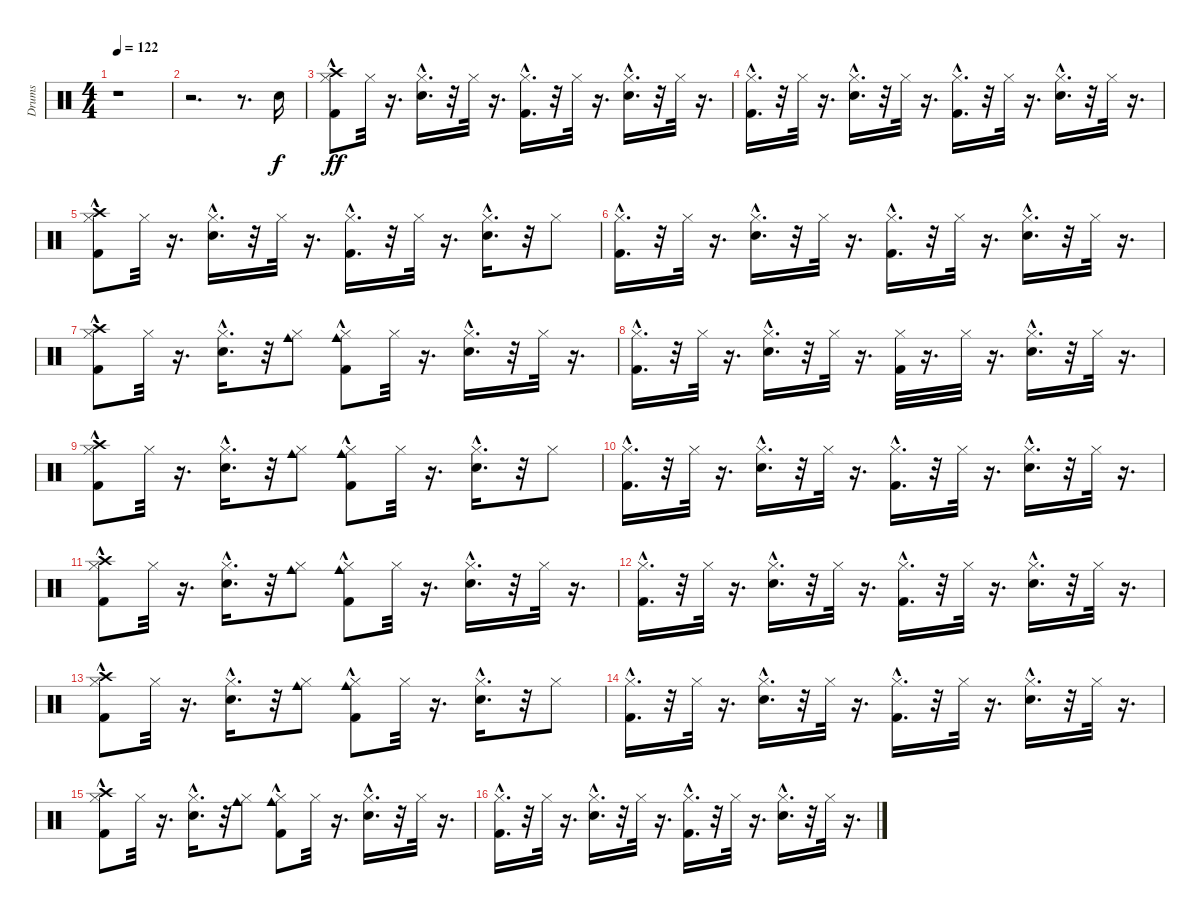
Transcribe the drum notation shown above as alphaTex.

\track ("Drums" "Drums") {instrument percussion}
\staff {score}
\articulation defaults
\ts (4 4)
\tempo 122
\clef neutral
\ks c
r.1{dy ff} |
r.2{d} r.8{d} "Snare (hit) 2".16{dy f} |
("Kick (hit) 2"{hac} "Hi-Hat (closed)"{hac} "Crash high (hit)"{hac}).8{dy ff} "Hi-Hat (closed)".32 r.16{d} ("Snare (hit) 2"{hac} "Hi-Hat (closed)"{hac}).16{d} r.32 "Hi-Hat (closed)".32 r.16{d} ("Kick (hit) 2"{hac} "Hi-Hat (closed)"{hac}).16{d} r.32 "Hi-Hat (closed)".32 r.16{d} ("Snare (hit) 2"{hac} "Hi-Hat (closed)"{hac}).16{d} r.32 "Hi-Hat (closed)".32 r.16{d} |
("Kick (hit) 2"{hac} "Hi-Hat (closed)"{hac}).16{d} r.32 "Hi-Hat (closed)".32 r.16{d} ("Snare (hit) 2"{hac} "Hi-Hat (closed)"{hac}).16{d} r.32 "Hi-Hat (closed)".32 r.16{d} ("Kick (hit) 2"{hac} "Hi-Hat (closed)"{hac}).16{d} r.32 "Hi-Hat (closed)".32 r.16{d} ("Snare (hit) 2"{hac} "Hi-Hat (closed)"{hac}).16{d} r.32 "Hi-Hat (closed)".32 r.16{d} |
("Kick (hit) 2"{hac} "Hi-Hat (closed)"{hac} "Crash high (hit)"{hac}).8 "Hi-Hat (closed)".32 r.16{d} ("Snare (hit) 2"{hac} "Hi-Hat (closed)"{hac}).16{d} r.32 "Hi-Hat (closed)".32 r.16{d} ("Kick (hit) 2"{hac} "Hi-Hat (closed)"{hac}).16{d} r.32 "Hi-Hat (closed)".32 r.16{d} ("Snare (hit) 2"{hac} "Hi-Hat (closed)"{hac}).16{d} r.32 "Hi-Hat (closed)".8 |
("Kick (hit) 2"{hac} "Hi-Hat (closed)"{hac}).16{d} r.32 "Hi-Hat (closed)".32 r.16{d} ("Snare (hit) 2"{hac} "Hi-Hat (closed)"{hac}).16{d} r.32 "Hi-Hat (closed)".32 r.16{d} ("Kick (hit) 2"{hac} "Hi-Hat (closed)"{hac}).16{d} r.32 "Hi-Hat (closed)".32 r.16{d} ("Snare (hit) 2"{hac} "Hi-Hat (closed)"{hac}).16{d} r.32 "Hi-Hat (closed)".32 r.16{d} |
("Kick (hit) 2"{hac} "Hi-Hat (closed)"{hac} "Crash high (hit)").8 "Hi-Hat (closed)".32 r.16{d} ("Snare (hit) 2"{hac} "Hi-Hat (closed)"{hac}).16{d} r.32 ("Hi-Hat (closed)" "Cowbell medium (hit)").8 ("Kick (hit) 2"{hac} "Hi-Hat (closed)"{hac} "Cowbell medium (hit)").8 "Hi-Hat (closed)".32 r.16{d} ("Snare (hit) 2"{hac} "Hi-Hat (closed)"{hac}).16{d} r.32 "Hi-Hat (closed)".32 r.16{d} |
("Kick (hit) 2"{hac} "Hi-Hat (closed)"{hac}).16{d} r.32 "Hi-Hat (closed)".32 r.16{d} ("Snare (hit) 2"{hac} "Hi-Hat (closed)"{hac}).16{d} r.32 "Hi-Hat (closed)".32 r.16{d} ("Kick (hit) 2" "Hi-Hat (closed)").32 r.16{d} "Hi-Hat (closed)".32 r.16{d} ("Snare (hit) 2"{hac} "Hi-Hat (closed)"{hac}).16{d} r.32 "Hi-Hat (closed)".32 r.16{d} |
("Kick (hit) 2"{hac} "Hi-Hat (closed)"{hac} "Crash high (hit)"{hac}).8 "Hi-Hat (closed)".32 r.16{d} ("Snare (hit) 2"{hac} "Hi-Hat (closed)"{hac}).16{d} r.32 ("Hi-Hat (closed)" "Cowbell medium (hit)").8 ("Kick (hit) 2"{hac} "Hi-Hat (closed)"{hac} "Cowbell medium (hit)").8 "Hi-Hat (closed)".32 r.16{d} ("Snare (hit) 2"{hac} "Hi-Hat (closed)"{hac}).16{d} r.32 "Hi-Hat (closed)".8 |
("Kick (hit) 2"{hac} "Hi-Hat (closed)"{hac}).16{d} r.32 "Hi-Hat (closed)".32 r.16{d} ("Snare (hit) 2"{hac} "Hi-Hat (closed)"{hac}).16{d} r.32 "Hi-Hat (closed)".32 r.16{d} ("Kick (hit) 2"{hac} "Hi-Hat (closed)"{hac}).16{d} r.32 "Hi-Hat (closed)".32 r.16{d} ("Snare (hit) 2"{hac} "Hi-Hat (closed)"{hac}).16{d} r.32 "Hi-Hat (closed)".32 r.16{d} |
("Kick (hit) 2"{hac} "Hi-Hat (closed)"{hac} "Crash high (hit)"{hac}).8 "Hi-Hat (closed)".32 r.16{d} ("Snare (hit) 2"{hac} "Hi-Hat (closed)"{hac}).16{d} r.32 ("Hi-Hat (closed)" "Cowbell medium (hit)").8 ("Kick (hit) 2"{hac} "Hi-Hat (closed)"{hac} "Cowbell medium (hit)").8 "Hi-Hat (closed)".32 r.16{d} ("Snare (hit) 2"{hac} "Hi-Hat (closed)"{hac}).16{d} r.32 "Hi-Hat (closed)".32 r.16{d} |
("Kick (hit) 2"{hac} "Hi-Hat (closed)"{hac}).16{d} r.32 "Hi-Hat (closed)".32 r.16{d} ("Snare (hit) 2"{hac} "Hi-Hat (closed)"{hac}).16{d} r.32 "Hi-Hat (closed)".32 r.16{d} ("Kick (hit) 2"{hac} "Hi-Hat (closed)"{hac}).16{d} r.32 "Hi-Hat (closed)".32 r.16{d} ("Snare (hit) 2"{hac} "Hi-Hat (closed)"{hac}).16{d} r.32 "Hi-Hat (closed)".32 r.16{d} |
("Kick (hit) 2"{hac} "Hi-Hat (closed)"{hac} "Crash high (hit)"{hac}).8 "Hi-Hat (closed)".32 r.16{d} ("Snare (hit) 2"{hac} "Hi-Hat (closed)"{hac}).16{d} r.32 ("Hi-Hat (closed)" "Cowbell medium (hit)").8 ("Kick (hit) 2"{hac} "Hi-Hat (closed)"{hac} "Cowbell medium (hit)").8 "Hi-Hat (closed)".32 r.16{d} ("Snare (hit) 2"{hac} "Hi-Hat (closed)"{hac}).16{d} r.32 "Hi-Hat (closed)".8 |
("Kick (hit) 2"{hac} "Hi-Hat (closed)"{hac}).16{d} r.32 "Hi-Hat (closed)".32 r.16{d} ("Snare (hit) 2"{hac} "Hi-Hat (closed)"{hac}).16{d} r.32 "Hi-Hat (closed)".32 r.16{d} ("Kick (hit) 2"{hac} "Hi-Hat (closed)"{hac}).16{d} r.32 "Hi-Hat (closed)".32 r.16{d} ("Snare (hit) 2"{hac} "Hi-Hat (closed)"{hac}).16{d} r.32 "Hi-Hat (closed)".32 r.16{d} |
("Kick (hit) 2"{hac} "Hi-Hat (closed)"{hac} "Crash high (hit)"{hac}).8 "Hi-Hat (closed)".32 r.16{d} ("Snare (hit) 2"{hac} "Hi-Hat (closed)"{hac}).16{d} r.32 ("Hi-Hat (closed)" "Cowbell medium (hit)").8 ("Kick (hit) 2"{hac} "Hi-Hat (closed)"{hac} "Cowbell medium (hit)").8 "Hi-Hat (closed)".32 r.16{d} ("Snare (hit) 2"{hac} "Hi-Hat (closed)"{hac}).16{d} r.32 "Hi-Hat (closed)".32 r.16{d} |
("Kick (hit) 2"{hac} "Hi-Hat (closed)"{hac}).16{d} r.32 "Hi-Hat (closed)".32 r.16{d} ("Snare (hit) 2"{hac} "Hi-Hat (closed)"{hac}).16{d} r.32 "Hi-Hat (closed)".32 r.16{d} ("Kick (hit) 2"{hac} "Hi-Hat (closed)"{hac}).16{d} r.32 "Hi-Hat (closed)".32 r.16{d} ("Snare (hit) 2"{hac} "Hi-Hat (closed)"{hac}).16{d} r.32 "Hi-Hat (closed)".32 r.16{d}
